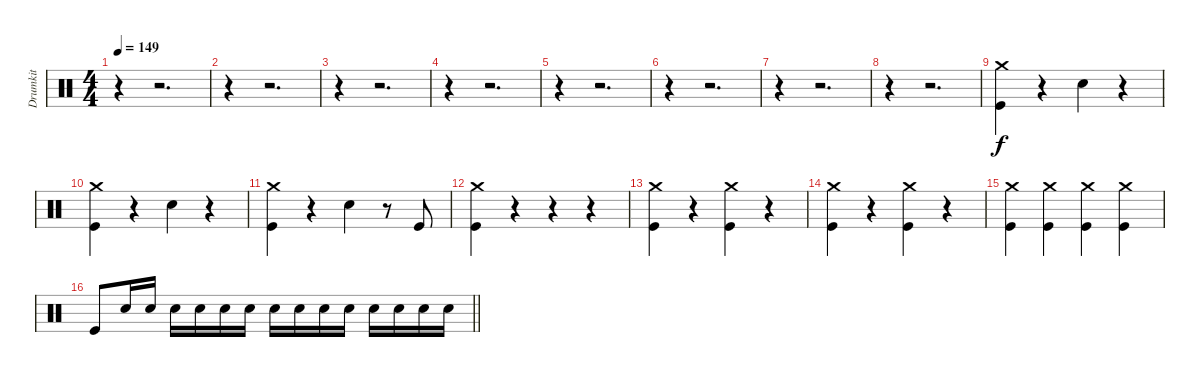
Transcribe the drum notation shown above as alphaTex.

\track ("Drumkit" "Drumkit") {instrument percussion}
\staff {score}
\articulation defaults
\ts (4 4)
\tempo 149
\clef neutral
\ks c
r.4{dy f} r.2{d} |
r.4 r.2{d} |
r.4 r.2{d} |
r.4 r.2{d} |
r.4 r.2{d} |
r.4 r.2{d} |
r.4 r.2{d} |
r.4 r.2{d} |
("Crash medium (hit)" "Kick (hit)").4 r.4 "Snare (hit) 2".4 r.4 |
("Crash medium (hit)" "Kick (hit)").4 r.4 "Snare (hit) 2".4 r.4 |
("Crash medium (hit)" "Kick (hit)").4 r.4 "Snare (hit) 2".4 r.8 "Kick (hit)".8 |
("Crash medium (hit)" "Kick (hit)").4 r.4 r.4 r.4 |
("Crash medium (hit)" "Kick (hit)").4 r.4 ("Crash medium (hit)" "Kick (hit)").4 r.4 |
("Crash medium (hit)" "Kick (hit)").4 r.4 ("Crash medium (hit)" "Kick (hit)").4 r.4 |
("Crash medium (hit)" "Kick (hit)").4 ("Crash medium (hit)" "Kick (hit)").4 ("Crash medium (hit)" "Kick (hit)").4 ("Crash medium (hit)" "Kick (hit)").4 |
\barLineRight lightlight "Kick (hit)".8 "Snare (hit) 2".16 "Snare (hit) 2".16 "Snare (hit) 2".16 "Snare (hit) 2".16 "Snare (hit) 2".16 "Snare (hit) 2".16 "Snare (hit) 2".16 "Snare (hit) 2".16 "Snare (hit) 2".16 "Snare (hit) 2".16 "Snare (hit) 2".16 "Snare (hit) 2".16 "Snare (hit) 2".16 "Snare (hit) 2".16
